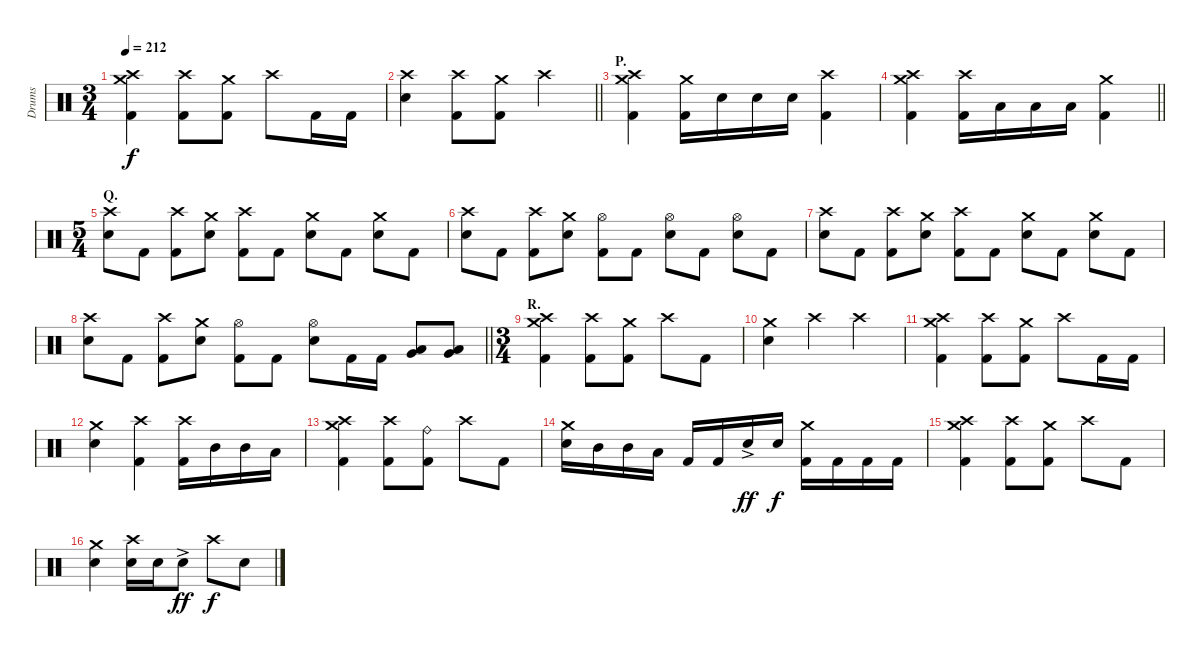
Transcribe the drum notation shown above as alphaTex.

\track ("Drums" "Drums") {instrument percussion}
\staff {score}
\articulation defaults
\ts (3 4)
\tempo 212
\clef neutral
\ks c
("Crash medium (hit)" "Crash high (hit)" "Kick (hit) 2").4{dy f} ("Crash high (hit)" "Kick (hit) 2").8 ("Crash medium (hit)" "Kick (hit) 2").8 "Crash high (hit)".8 "Kick (hit) 2".16 "Kick (hit) 2".16 |
\barLineRight lightlight
("Crash high (hit)" "Electric Snare (hit)").4 ("Crash high (hit)" "Kick (hit) 2").8 ("Crash medium (hit)" "Kick (hit) 2").8 "Crash high (hit)".4 |
\section ("" "P.")
("Crash medium (hit)" "Crash high (hit)" "Kick (hit) 2").4 ("Crash medium (hit)" "Kick (hit) 2").16 "Electric Snare (hit)".16 "Electric Snare (hit)".16 "Electric Snare (hit)".16 ("Crash high (hit)" "Kick (hit) 2").4 |
\barLineRight lightlight
("Crash medium (hit)" "Crash high (hit)" "Kick (hit) 2").4 ("Crash high (hit)" "Kick (hit) 2").16 "Low Tom (hit)".16 "Low Tom (hit)".16 "Low Tom (hit)".16 ("Crash medium (hit)" "Kick (hit) 2").4 |
\ts (5 4)
\section ("" "Q.")
("Crash high (hit)" "Electric Snare (hit)").8 "Kick (hit) 2".8 ("Crash high (hit)" "Kick (hit) 2").8 ("Crash medium (hit)" "Electric Snare (hit)").8 ("Crash high (hit)" "Kick (hit) 2").8 "Kick (hit) 2".8 ("Crash medium (hit)" "Electric Snare (hit)").8 "Kick (hit) 2".8 ("Crash medium (hit)" "Electric Snare (hit)").8 "Kick (hit) 2".8 |
("Crash high (hit)" "Electric Snare (hit)").8 "Kick (hit) 2".8 ("Crash high (hit)" "Kick (hit) 2").8 ("Crash medium (hit)" "Electric Snare (hit)").8 ("Hi-Hat (open)" "Kick (hit) 2").8 "Kick (hit) 2".8 ("Hi-Hat (open)" "Electric Snare (hit)").8 "Kick (hit) 2".8 ("Hi-Hat (open)" "Electric Snare (hit)").8 "Kick (hit) 2".8 |
("Crash high (hit)" "Electric Snare (hit)").8 "Kick (hit) 2".8 ("Crash high (hit)" "Kick (hit) 2").8 ("Crash medium (hit)" "Electric Snare (hit)").8 ("Crash high (hit)" "Kick (hit) 2").8 "Kick (hit) 2".8 ("Crash medium (hit)" "Electric Snare (hit)").8 "Kick (hit) 2".8 ("Crash medium (hit)" "Electric Snare (hit)").8 "Kick (hit) 2".8 |
\barLineRight lightlight
("Crash high (hit)" "Electric Snare (hit)").8 "Kick (hit) 2".8 ("Crash high (hit)" "Kick (hit) 2").8 ("Crash medium (hit)" "Electric Snare (hit)").8 ("Hi-Hat (open)" "Kick (hit) 2").8 "Kick (hit) 2".8 ("Hi-Hat (open)" "Electric Snare (hit)").8 "Kick (hit) 2".16 "Kick (hit) 2".16 ("Low Tom (hit)" "Very Low Tom (hit)").8{bu 120} ("Low Tom (hit)" "Very Low Tom (hit)").8{bu 120} |
\ts (3 4)
\section ("" "R.")
("Crash medium (hit)" "Crash high (hit)" "Kick (hit) 2").4 ("Crash high (hit)" "Kick (hit) 2").8 ("Crash medium (hit)" "Kick (hit) 2").8 "Crash high (hit)".8 "Kick (hit) 2".8 |
("Crash medium (hit)" "Electric Snare (hit)").4 "Crash high (hit)".4 "Crash high (hit)".4 |
("Crash medium (hit)" "Crash high (hit)" "Kick (hit) 2").4 ("Crash high (hit)" "Kick (hit) 2").8 ("Crash medium (hit)" "Kick (hit) 2").8 "Crash high (hit)".8 "Kick (hit) 2".16 "Kick (hit) 2".16 |
("Crash medium (hit)" "Electric Snare (hit)").4 ("Crash high (hit)" "Kick (hit) 2").4 ("Crash high (hit)" "Kick (hit) 2").16 "Mid Tom (hit)".16 "Mid Tom (hit)".16 "Low Tom (hit)".16 |
("Crash medium (hit)" "Crash high (hit)" "Kick (hit) 2").4 ("Crash high (hit)" "Kick (hit) 2").8 ("Ride (bell)" "Kick (hit) 2").8 "Crash high (hit)".8 "Kick (hit) 2".8 |
("Crash medium (hit)" "Electric Snare (hit)").16 "Mid Tom (hit)".16 "Mid Tom (hit)".16 "Low Tom (hit)".16 "Kick (hit) 2".16 "Kick (hit) 2".16 "Electric Snare (hit)"{ac}.16{dy ff} "Electric Snare (hit)".16{dy f} ("Crash medium (hit)" "Kick (hit) 2").16 "Kick (hit) 2".16 "Kick (hit) 2".16 "Kick (hit) 2".16 |
("Crash medium (hit)" "Crash high (hit)" "Kick (hit) 2").4 ("Crash high (hit)" "Kick (hit) 2").8 ("Crash medium (hit)" "Kick (hit) 2").8 "Crash high (hit)".8 "Kick (hit) 2".8 |
("Crash medium (hit)" "Electric Snare (hit)").4 ("Crash high (hit)" "Electric Snare (hit)").16 "Electric Snare (hit)".16 "Electric Snare (hit)"{ac}.8{dy ff} "Crash high (hit)".8{dy f} "Electric Snare (hit)".8
